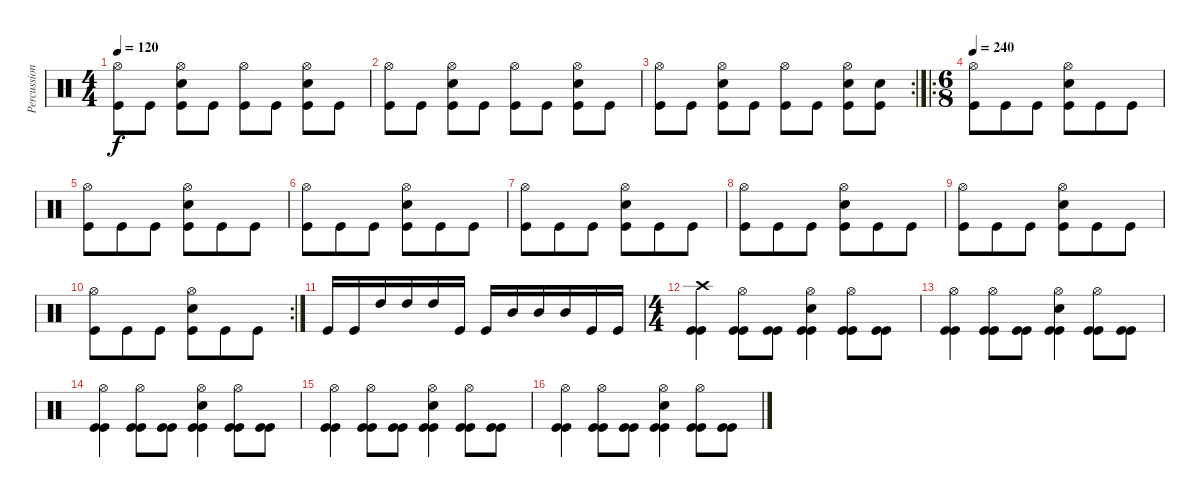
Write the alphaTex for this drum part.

\track ("Percussion" "Percussion") {instrument percussion}
\staff {score}
\articulation defaults
\ts (4 4)
\tempo 120
\clef neutral
\ks c
("Hi-Hat (open)" "Kick (hit)").8{dy f} "Kick (hit)".8 ("Hi-Hat (open)" "Snare (hit) 2" "Kick (hit)").8 "Kick (hit)".8 ("Hi-Hat (open)" "Kick (hit)").8 "Kick (hit)".8 ("Hi-Hat (open)" "Snare (hit) 2" "Kick (hit)").8 "Kick (hit)".8 |
("Hi-Hat (open)" "Kick (hit)").8 "Kick (hit)".8 ("Hi-Hat (open)" "Snare (hit) 2" "Kick (hit)").8 "Kick (hit)".8 ("Hi-Hat (open)" "Kick (hit)").8 "Kick (hit)".8 ("Hi-Hat (open)" "Snare (hit) 2" "Kick (hit)").8 "Kick (hit)".8 |
\rc 2
("Hi-Hat (open)" "Kick (hit)").8 "Kick (hit)".8 ("Hi-Hat (open)" "Snare (hit) 2" "Kick (hit)").8 "Kick (hit)".8 ("Hi-Hat (open)" "Kick (hit)").8 "Kick (hit)".8 ("Hi-Hat (open)" "Snare (hit) 2" "Kick (hit)").8 ("Snare (hit) 2" "Kick (hit)").8 |
\ro
\ts (6 8)
\tempo 240
("Hi-Hat (open)" "Kick (hit)").8 "Kick (hit)".8 "Kick (hit)".8 ("Hi-Hat (open)" "Snare (hit) 2" "Kick (hit)").8 "Kick (hit)".8 "Kick (hit)".8 |
("Hi-Hat (open)" "Kick (hit)").8 "Kick (hit)".8 "Kick (hit)".8 ("Hi-Hat (open)" "Snare (hit) 2" "Kick (hit)").8 "Kick (hit)".8 "Kick (hit)".8 |
("Hi-Hat (open)" "Kick (hit)").8 "Kick (hit)".8 "Kick (hit)".8 ("Hi-Hat (open)" "Snare (hit) 2" "Kick (hit)").8 "Kick (hit)".8 "Kick (hit)".8 |
("Hi-Hat (open)" "Kick (hit)").8 "Kick (hit)".8 "Kick (hit)".8 ("Hi-Hat (open)" "Snare (hit) 2" "Kick (hit)").8 "Kick (hit)".8 "Kick (hit)".8 |
("Hi-Hat (open)" "Kick (hit)").8 "Kick (hit)".8 "Kick (hit)".8 ("Hi-Hat (open)" "Snare (hit) 2" "Kick (hit)").8 "Kick (hit)".8 "Kick (hit)".8 |
("Hi-Hat (open)" "Kick (hit)").8 "Kick (hit)".8 "Kick (hit)".8 ("Hi-Hat (open)" "Snare (hit) 2" "Kick (hit)").8 "Kick (hit)".8 "Kick (hit)".8 |
\rc 2
("Hi-Hat (open)" "Kick (hit)").8 "Kick (hit)".8 "Kick (hit)".8 ("Hi-Hat (open)" "Snare (hit) 2" "Kick (hit)").8 "Kick (hit)".8 "Kick (hit)".8 |
"Kick (hit)".16 "Kick (hit)".16 "High Tom (hit)".16 "High Tom (hit)".16 "High Tom (hit)".16 "Kick (hit)".16 "Kick (hit)".16 "Mid Tom (hit)".16 "Mid Tom (hit)".16 "Mid Tom (hit)".16 "Kick (hit)".16 "Kick (hit)".16 |
\ts (4 4)
("Crash high (hit)" "Kick (hit)" "Kick (hit)").4 ("Hi-Hat (open)" "Kick (hit)" "Kick (hit)").8 ("Kick (hit)" "Kick (hit)").8 ("Hi-Hat (open)" "Snare (hit) 2" "Kick (hit)" "Kick (hit)").4 ("Hi-Hat (open)" "Kick (hit)" "Kick (hit)").8 ("Kick (hit)" "Kick (hit)").8 |
("Hi-Hat (open)" "Kick (hit)" "Kick (hit)").4 ("Hi-Hat (open)" "Kick (hit)" "Kick (hit)").8 ("Kick (hit)" "Kick (hit)").8 ("Hi-Hat (open)" "Snare (hit) 2" "Kick (hit)" "Kick (hit)").4 ("Hi-Hat (open)" "Kick (hit)" "Kick (hit)").8 ("Kick (hit)" "Kick (hit)").8 |
("Hi-Hat (open)" "Kick (hit)" "Kick (hit)").4 ("Hi-Hat (open)" "Kick (hit)" "Kick (hit)").8 ("Kick (hit)" "Kick (hit)").8 ("Hi-Hat (open)" "Snare (hit) 2" "Kick (hit)" "Kick (hit)").4 ("Hi-Hat (open)" "Kick (hit)" "Kick (hit)").8 ("Kick (hit)" "Kick (hit)").8 |
("Hi-Hat (open)" "Kick (hit)" "Kick (hit)").4 ("Hi-Hat (open)" "Kick (hit)" "Kick (hit)").8 ("Kick (hit)" "Kick (hit)").8 ("Hi-Hat (open)" "Snare (hit) 2" "Kick (hit)" "Kick (hit)").4 ("Hi-Hat (open)" "Kick (hit)" "Kick (hit)").8 ("Kick (hit)" "Kick (hit)").8 |
("Hi-Hat (open)" "Kick (hit)" "Kick (hit)").4 ("Hi-Hat (open)" "Kick (hit)" "Kick (hit)").8 ("Kick (hit)" "Kick (hit)").8 ("Hi-Hat (open)" "Snare (hit) 2" "Kick (hit)" "Kick (hit)").4 ("Hi-Hat (open)" "Kick (hit)" "Kick (hit)").8 ("Kick (hit)" "Kick (hit)").8
